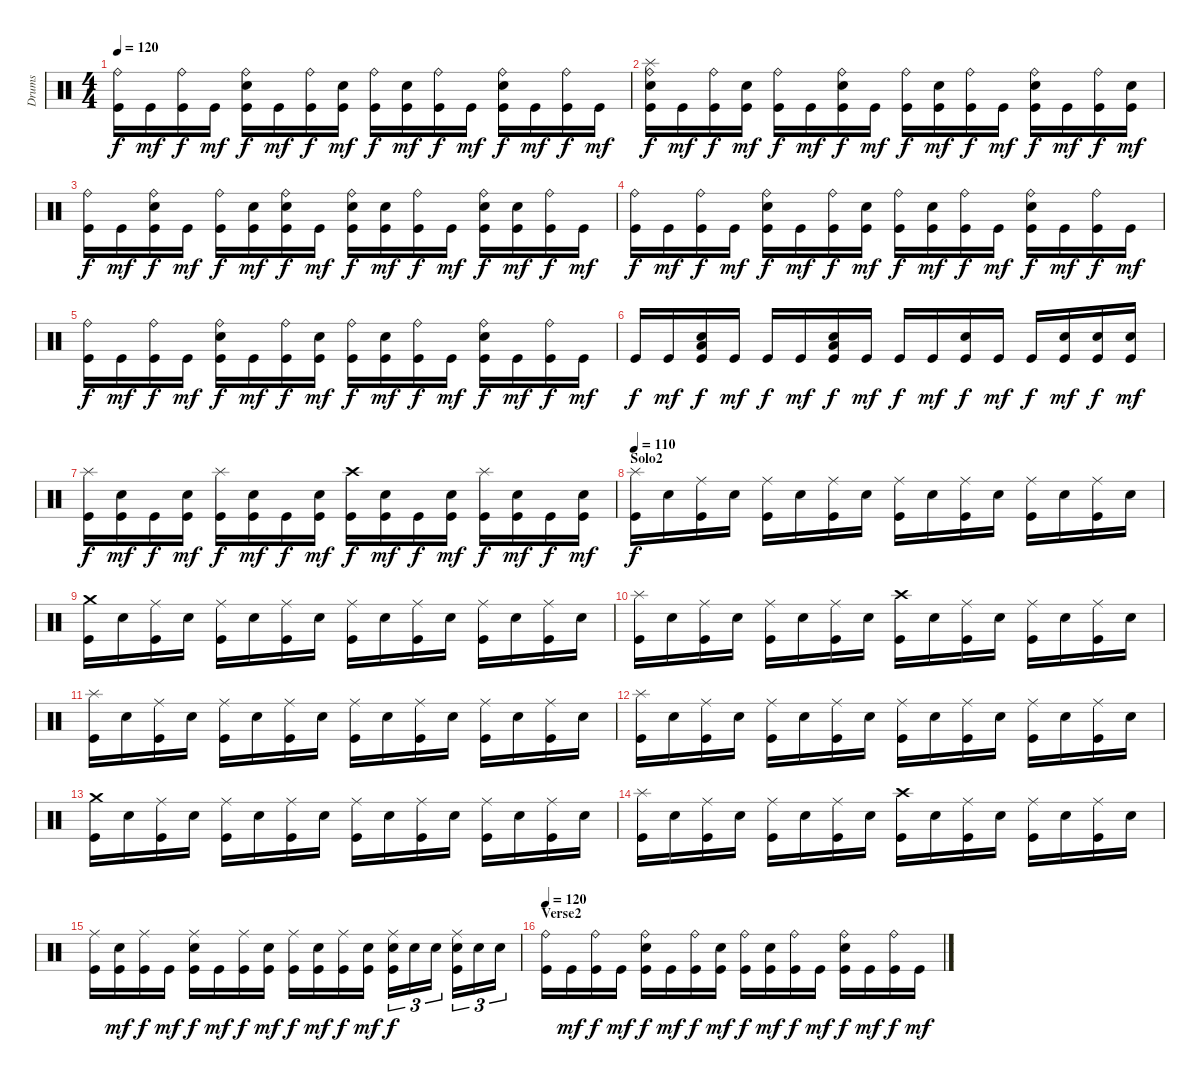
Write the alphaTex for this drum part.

\track ("Drums" "Drums") {instrument percussion}
\staff {score}
\articulation defaults
\ts (4 4)
\tempo 120
\clef neutral
\ks c
("Ride (bell)" "Kick (hit)").16{dy f} "Kick (hit)".16{dy mf} ("Ride (bell)" "Kick (hit)").16{dy f} "Kick (hit)".16{dy mf} ("Ride (bell)" "Snare (hit) 2" "Kick (hit)").16{dy f} "Kick (hit)".16{dy mf} ("Ride (bell)" "Kick (hit)").16{dy f} ("Snare (hit) 2" "Kick (hit)").16{dy mf} ("Ride (bell)" "Kick (hit)").16{dy f} ("Snare (hit) 2" "Kick (hit)").16{dy mf} ("Ride (bell)" "Kick (hit)").16{dy f} "Kick (hit)".16{dy mf} ("Ride (bell)" "Snare (hit) 2" "Kick (hit)").16{dy f} "Kick (hit)".16{dy mf} ("Ride (bell)" "Kick (hit)").16{dy f} "Kick (hit)".16{dy mf} |
("Splash (hit)" "Ride (bell)" "Snare (hit) 2" "Kick (hit)").16{dy f} "Kick (hit)".16{dy mf} ("Ride (bell)" "Kick (hit)").16{dy f} ("Snare (hit) 2" "Kick (hit)").16{dy mf} ("Ride (bell)" "Kick (hit)").16{dy f} "Kick (hit)".16{dy mf} ("Ride (bell)" "Snare (hit) 2" "Kick (hit)").16{dy f} "Kick (hit)".16{dy mf} ("Ride (bell)" "Kick (hit)").16{dy f} ("Snare (hit) 2" "Kick (hit)").16{dy mf} ("Ride (bell)" "Kick (hit)").16{dy f} "Kick (hit)".16{dy mf} ("Ride (bell)" "Snare (hit) 2" "Kick (hit)").16{dy f} "Kick (hit)".16{dy mf} ("Ride (bell)" "Kick (hit)").16{dy f} ("Snare (hit) 2" "Kick (hit)").16{dy mf} |
("Ride (bell)" "Kick (hit)").16{dy f} "Kick (hit)".16{dy mf} ("Ride (bell)" "Snare (hit) 2" "Kick (hit)").16{dy f} "Kick (hit)".16{dy mf} ("Ride (bell)" "Kick (hit)").16{dy f} ("Snare (hit) 2" "Kick (hit)").16{dy mf} ("Ride (bell)" "Snare (hit) 2" "Kick (hit)").16{dy f} "Kick (hit)".16{dy mf} ("Ride (bell)" "Snare (hit) 2" "Kick (hit)").16{dy f} ("Snare (hit) 2" "Kick (hit)").16{dy mf} ("Ride (bell)" "Kick (hit)").16{dy f} "Kick (hit)".16{dy mf} ("Ride (bell)" "Snare (hit) 2" "Kick (hit)").16{dy f} ("Snare (hit) 2" "Kick (hit)").16{dy mf} ("Ride (bell)" "Kick (hit)").16{dy f} "Kick (hit)".16{dy mf} |
("Ride (bell)" "Kick (hit)").16{dy f} "Kick (hit)".16{dy mf} ("Ride (bell)" "Kick (hit)").16{dy f} "Kick (hit)".16{dy mf} ("Ride (bell)" "Snare (hit) 2" "Kick (hit)").16{dy f} "Kick (hit)".16{dy mf} ("Ride (bell)" "Kick (hit)").16{dy f} ("Snare (hit) 2" "Kick (hit)").16{dy mf} ("Ride (bell)" "Kick (hit)").16{dy f} ("Snare (hit) 2" "Kick (hit)").16{dy mf} ("Ride (bell)" "Kick (hit)").16{dy f} "Kick (hit)".16{dy mf} ("Ride (bell)" "Snare (hit) 2" "Kick (hit)").16{dy f} "Kick (hit)".16{dy mf} ("Ride (bell)" "Kick (hit)").16{dy f} "Kick (hit)".16{dy mf} |
("Ride (bell)" "Kick (hit)").16{dy f} "Kick (hit)".16{dy mf} ("Ride (bell)" "Kick (hit)").16{dy f} "Kick (hit)".16{dy mf} ("Ride (bell)" "Snare (hit) 2" "Kick (hit)").16{dy f} "Kick (hit)".16{dy mf} ("Ride (bell)" "Kick (hit)").16{dy f} ("Snare (hit) 2" "Kick (hit)").16{dy mf} ("Ride (bell)" "Kick (hit)").16{dy f} ("Snare (hit) 2" "Kick (hit)").16{dy mf} ("Ride (bell)" "Kick (hit)").16{dy f} "Kick (hit)".16{dy mf} ("Ride (bell)" "Snare (hit) 2" "Kick (hit)").16{dy f} "Kick (hit)".16{dy mf} ("Ride (bell)" "Kick (hit)").16{dy f} "Kick (hit)".16{dy mf} |
"Kick (hit)".16{dy f} "Kick (hit)".16{dy mf} ("Low Tom (hit)" "Snare (hit) 2" "Kick (hit)").16{dy f} "Kick (hit)".16{dy mf} "Kick (hit)".16{dy f} "Kick (hit)".16{dy mf} ("Low Tom (hit)" "Snare (hit) 2" "Kick (hit)").16{dy f} "Kick (hit)".16{dy mf} "Kick (hit)".16{dy f} "Kick (hit)".16{dy mf} ("Snare (hit) 2" "Kick (hit)").16{dy f} "Kick (hit)".16{dy mf} "Kick (hit)".16{dy f} ("Snare (hit) 2" "Kick (hit)").16{dy mf} ("Snare (hit) 2" "Kick (hit)").16{dy f} ("Snare (hit) 2" "Kick (hit)").16{dy mf} |
("Splash (hit)" "Kick (hit)").16{dy f} ("Snare (hit) 2" "Kick (hit)").16{dy mf} "Kick (hit)".16{dy f} ("Snare (hit) 2" "Kick (hit)").16{dy mf} ("Splash (hit)" "Kick (hit)").16{dy f} ("Snare (hit) 2" "Kick (hit)").16{dy mf} "Kick (hit)".16{dy f} ("Snare (hit) 2" "Kick (hit)").16{dy mf} ("Crash high (hit)" "Kick (hit)").16{dy f} ("Snare (hit) 2" "Kick (hit)").16{dy mf} "Kick (hit)".16{dy f} ("Snare (hit) 2" "Kick (hit)").16{dy mf} ("Splash (hit)" "Kick (hit)").16{dy f} ("Snare (hit) 2" "Kick (hit)").16{dy mf} "Kick (hit)".16{dy f} ("Snare (hit) 2" "Kick (hit)").16{dy mf} |
\section ("" "Solo2")
\tempo 110
("Splash (hit)" "Kick (hit)").16{dy f} "Snare (hit) 2".16 ("Ride (middle)" "Kick (hit)").16 "Snare (hit) 2".16 ("Ride (middle)" "Kick (hit)").16 "Snare (hit) 2".16 ("Ride (middle)" "Kick (hit)").16 "Snare (hit) 2".16 ("Ride (middle)" "Kick (hit)").16 "Snare (hit) 2".16 ("Ride (middle)" "Kick (hit)").16 "Snare (hit) 2".16 ("Ride (middle)" "Kick (hit)").16 "Snare (hit) 2".16 ("Ride (middle)" "Kick (hit)").16 "Snare (hit) 2".16 |
("Crash medium (hit)" "Kick (hit)").16 "Snare (hit) 2".16 ("Ride (middle)" "Kick (hit)").16 "Snare (hit) 2".16 ("Ride (middle)" "Kick (hit)").16 "Snare (hit) 2".16 ("Ride (middle)" "Kick (hit)").16 "Snare (hit) 2".16 ("Ride (middle)" "Kick (hit)").16 "Snare (hit) 2".16 ("Ride (middle)" "Kick (hit)").16 "Snare (hit) 2".16 ("Ride (middle)" "Kick (hit)").16 "Snare (hit) 2".16 ("Ride (middle)" "Kick (hit)").16 "Snare (hit) 2".16 |
("Splash (hit)" "Kick (hit)").16 "Snare (hit) 2".16 ("Ride (middle)" "Kick (hit)").16 "Snare (hit) 2".16 ("Ride (middle)" "Kick (hit)").16 "Snare (hit) 2".16 ("Ride (middle)" "Kick (hit)").16 "Snare (hit) 2".16 ("Crash high (hit)" "Kick (hit)").16 "Snare (hit) 2".16 ("Ride (middle)" "Kick (hit)").16 "Snare (hit) 2".16 ("Ride (middle)" "Kick (hit)").16 "Snare (hit) 2".16 ("Ride (middle)" "Kick (hit)").16 "Snare (hit) 2".16 |
("Splash (hit)" "Kick (hit)").16 "Snare (hit) 2".16 ("Ride (middle)" "Kick (hit)").16 "Snare (hit) 2".16 ("Ride (middle)" "Kick (hit)").16 "Snare (hit) 2".16 ("Ride (middle)" "Kick (hit)").16 "Snare (hit) 2".16 ("Ride (middle)" "Kick (hit)").16 "Snare (hit) 2".16 ("Ride (middle)" "Kick (hit)").16 "Snare (hit) 2".16 ("Ride (middle)" "Kick (hit)").16 "Snare (hit) 2".16 ("Ride (middle)" "Kick (hit)").16 "Snare (hit) 2".16 |
("Splash (hit)" "Kick (hit)").16 "Snare (hit) 2".16 ("Ride (middle)" "Kick (hit)").16 "Snare (hit) 2".16 ("Ride (middle)" "Kick (hit)").16 "Snare (hit) 2".16 ("Ride (middle)" "Kick (hit)").16 "Snare (hit) 2".16 ("Ride (middle)" "Kick (hit)").16 "Snare (hit) 2".16 ("Ride (middle)" "Kick (hit)").16 "Snare (hit) 2".16 ("Ride (middle)" "Kick (hit)").16 "Snare (hit) 2".16 ("Ride (middle)" "Kick (hit)").16 "Snare (hit) 2".16 |
("Crash medium (hit)" "Kick (hit)").16 "Snare (hit) 2".16 ("Ride (middle)" "Kick (hit)").16 "Snare (hit) 2".16 ("Ride (middle)" "Kick (hit)").16 "Snare (hit) 2".16 ("Ride (middle)" "Kick (hit)").16 "Snare (hit) 2".16 ("Ride (middle)" "Kick (hit)").16 "Snare (hit) 2".16 ("Ride (middle)" "Kick (hit)").16 "Snare (hit) 2".16 ("Ride (middle)" "Kick (hit)").16 "Snare (hit) 2".16 ("Ride (middle)" "Kick (hit)").16 "Snare (hit) 2".16 |
("Splash (hit)" "Kick (hit)").16 "Snare (hit) 2".16 ("Ride (middle)" "Kick (hit)").16 "Snare (hit) 2".16 ("Ride (middle)" "Kick (hit)").16 "Snare (hit) 2".16 ("Ride (middle)" "Kick (hit)").16 "Snare (hit) 2".16 ("Crash high (hit)" "Kick (hit)").16 "Snare (hit) 2".16 ("Ride (middle)" "Kick (hit)").16 "Snare (hit) 2".16 ("Ride (middle)" "Kick (hit)").16 "Snare (hit) 2".16 ("Ride (middle)" "Kick (hit)").16 "Snare (hit) 2".16 |
("Ride (middle)" "Kick (hit)").16 ("Snare (hit) 2" "Kick (hit)").16{dy mf} ("Ride (middle)" "Kick (hit)").16{dy f} "Kick (hit)".16{dy mf} ("Ride (middle)" "Snare (hit) 2" "Kick (hit)").16{dy f} "Kick (hit)".16{dy mf} ("Ride (middle)" "Kick (hit)").16{dy f} ("Snare (hit) 2" "Kick (hit)").16{dy mf} ("Ride (middle)" "Kick (hit)").16{dy f} ("Snare (hit) 2" "Kick (hit)").16{dy mf} ("Ride (middle)" "Kick (hit)").16{dy f} ("Snare (hit) 2" "Kick (hit)").16{dy mf} ("Ride (middle)" "Snare (hit) 2" "Kick (hit)").16{tu (3 2) dy f} "Snare (hit) 2".16{tu (3 2)} "Snare (hit) 2".16{tu (3 2)} ("Ride (middle)" "Snare (hit) 2" "Kick (hit)").16{tu (3 2)} "Snare (hit) 2".16{tu (3 2)} "Snare (hit) 2".16{tu (3 2)} |
\section ("" "Verse2")
\tempo 120
("Ride (bell)" "Kick (hit)").16 "Kick (hit)".16{dy mf} ("Ride (bell)" "Kick (hit)").16{dy f} "Kick (hit)".16{dy mf} ("Ride (bell)" "Snare (hit) 2" "Kick (hit)").16{dy f} "Kick (hit)".16{dy mf} ("Ride (bell)" "Kick (hit)").16{dy f} ("Snare (hit) 2" "Kick (hit)").16{dy mf} ("Ride (bell)" "Kick (hit)").16{dy f} ("Snare (hit) 2" "Kick (hit)").16{dy mf} ("Ride (bell)" "Kick (hit)").16{dy f} "Kick (hit)".16{dy mf} ("Ride (bell)" "Snare (hit) 2" "Kick (hit)").16{dy f} "Kick (hit)".16{dy mf} ("Ride (bell)" "Kick (hit)").16{dy f} "Kick (hit)".16{dy mf}
